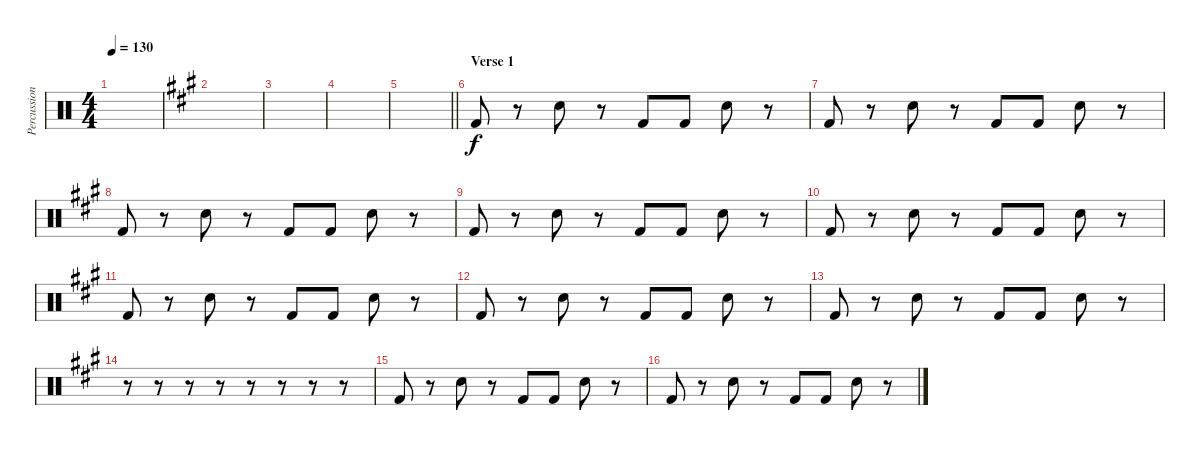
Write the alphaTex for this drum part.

\track ("Percussion" "Percussion") {instrument percussion}
\staff {score}
\articulation defaults
\ts (4 4)
\tempo 130
\clef neutral
\ks c
|
\ks a
|
|
|
\barLineRight lightlight
|
\section ("" "Verse 1")
"Kick (hit) 2".8 r.8 "Snare (hit) 2".8 r.8 "Kick (hit) 2".8 "Kick (hit) 2".8 "Snare (hit) 2".8 r.8 |
"Kick (hit) 2".8 r.8 "Snare (hit) 2".8 r.8 "Kick (hit) 2".8 "Kick (hit) 2".8 "Snare (hit) 2".8 r.8 |
"Kick (hit) 2".8 r.8 "Snare (hit) 2".8 r.8 "Kick (hit) 2".8 "Kick (hit) 2".8 "Snare (hit) 2".8 r.8 |
"Kick (hit) 2".8 r.8 "Snare (hit) 2".8 r.8 "Kick (hit) 2".8 "Kick (hit) 2".8 "Snare (hit) 2".8 r.8 |
"Kick (hit) 2".8 r.8 "Snare (hit) 2".8 r.8 "Kick (hit) 2".8 "Kick (hit) 2".8 "Snare (hit) 2".8 r.8 |
"Kick (hit) 2".8 r.8 "Snare (hit) 2".8 r.8 "Kick (hit) 2".8 "Kick (hit) 2".8 "Snare (hit) 2".8 r.8 |
"Kick (hit) 2".8 r.8 "Snare (hit) 2".8 r.8 "Kick (hit) 2".8 "Kick (hit) 2".8 "Snare (hit) 2".8 r.8 |
"Kick (hit) 2".8 r.8 "Snare (hit) 2".8 r.8 "Kick (hit) 2".8 "Kick (hit) 2".8 "Snare (hit) 2".8 r.8 |
r.8 r.8 r.8 r.8 r.8 r.8 r.8 r.8 |
"Kick (hit) 2".8 r.8 "Snare (hit) 2".8 r.8 "Kick (hit) 2".8 "Kick (hit) 2".8 "Snare (hit) 2".8 r.8 |
"Kick (hit) 2".8 r.8 "Snare (hit) 2".8 r.8 "Kick (hit) 2".8 "Kick (hit) 2".8 "Snare (hit) 2".8 r.8
